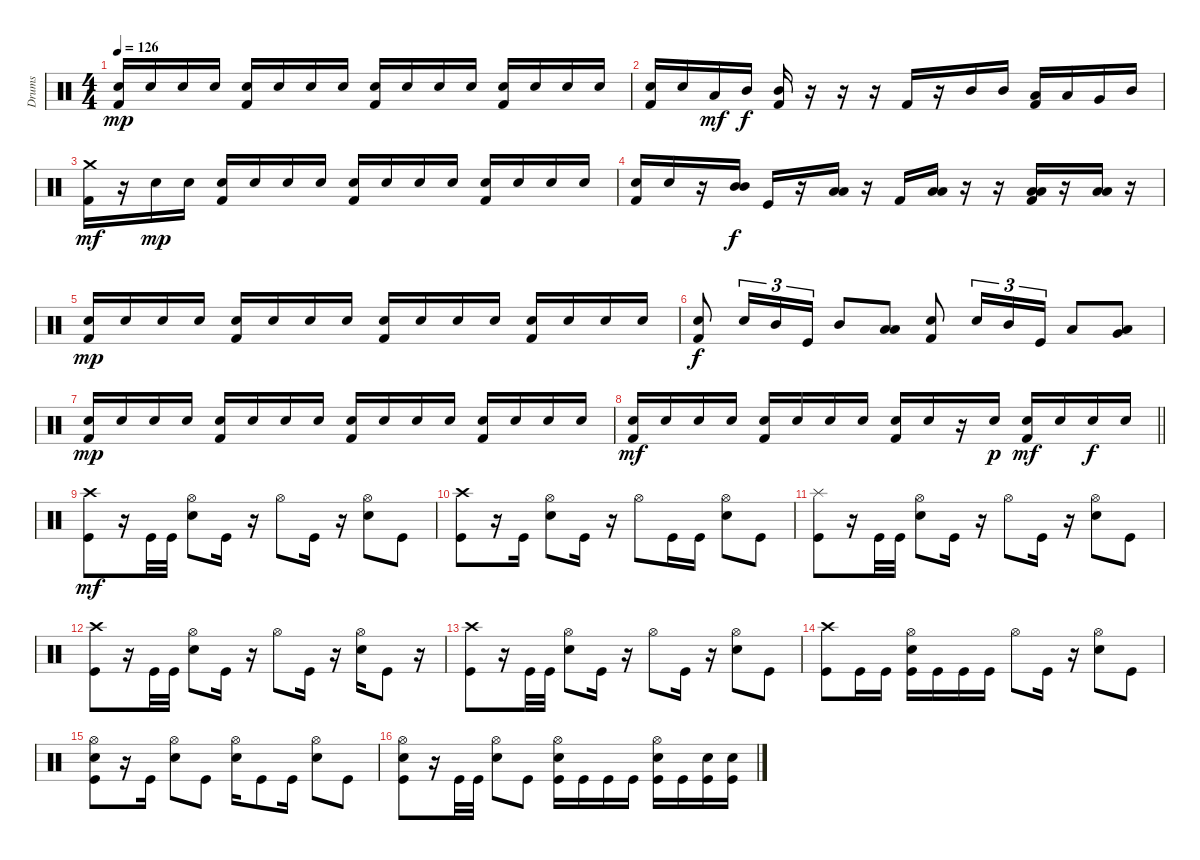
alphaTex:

\track ("Drums" "Drums") {instrument percussion bank 127}
\staff {score}
\articulation defaults
\ts (4 4)
\tempo 126
\clef neutral
\ks c
("Snare (hit) 2" "Kick (hit) 2").16{dy mp} "Snare (hit) 2".16 "Snare (hit) 2".16 "Snare (hit) 2".16 ("Snare (hit) 2" "Kick (hit) 2").16 "Snare (hit) 2".16 "Snare (hit) 2".16 "Snare (hit) 2".16 ("Snare (hit) 2" "Kick (hit) 2").16 "Snare (hit) 2".16 "Snare (hit) 2".16 "Snare (hit) 2".16 ("Snare (hit) 2" "Kick (hit) 2").16 "Snare (hit) 2".16 "Snare (hit) 2".16 "Snare (hit) 2".16 |
("Snare (hit) 2" "Kick (hit) 2").16 "Snare (hit) 2".16 "Low Tom (hit)".16{dy mf} "Mid Tom (hit)".16{dy f} ("Mid Tom (hit)" "Kick (hit) 2").16 r.16 r.16 r.16 "Kick (hit) 2".16 r.16 "Mid Tom (hit)".16 "Mid Tom (hit)".16 ("Low Tom (hit)" "Kick (hit) 2").16 "Low Tom (hit)".16 "Very Low Tom (hit)".16 "Mid Tom (hit)".16 |
("Crash medium (hit)" "Kick (hit) 2").16{dy mf} r.16 "Snare (hit) 2".16{dy mp} "Snare (hit) 2".16 ("Snare (hit) 2" "Kick (hit) 2").16 "Snare (hit) 2".16 "Snare (hit) 2".16 "Snare (hit) 2".16 ("Snare (hit) 2" "Kick (hit) 2").16 "Snare (hit) 2".16 "Snare (hit) 2".16 "Snare (hit) 2".16 ("Snare (hit) 2" "Kick (hit) 2").16 "Snare (hit) 2".16 "Snare (hit) 2".16 "Snare (hit) 2".16 |
("Snare (hit) 2" "Kick (hit) 2").16 "Snare (hit) 2".16 r.16 ("Mid Tom (hit)" "Mid Tom (hit)").16{dy f} "Kick (hit)".16 r.16 ("Low Tom (hit)" "Low Tom (hit)").16 r.16 "Kick (hit) 2".16 ("Low Floor Tom (hit)" "Low Floor Tom (hit)").16 r.16 r.16 ("Low Floor Tom (hit)" "Low Floor Tom (hit)" "Kick (hit) 2").16 r.16 ("Low Floor Tom (hit)" "Low Floor Tom (hit)").16 r.16 |
("Snare (hit) 2" "Kick (hit) 2").16{dy mp} "Snare (hit) 2".16 "Snare (hit) 2".16 "Snare (hit) 2".16 ("Snare (hit) 2" "Kick (hit) 2").16 "Snare (hit) 2".16 "Snare (hit) 2".16 "Snare (hit) 2".16 ("Snare (hit) 2" "Kick (hit) 2").16 "Snare (hit) 2".16 "Snare (hit) 2".16 "Snare (hit) 2".16 ("Snare (hit) 2" "Kick (hit) 2").16 "Snare (hit) 2".16 "Snare (hit) 2".16 "Snare (hit) 2".16 |
("Snare (hit) 2" "Kick (hit) 2").8{dy f} "Snare (hit) 2".16{tu (3 2)} "Mid Tom (hit)".16{tu (3 2)} "Kick (hit)".16{tu (3 2)} "Mid Tom (hit)".8 ("Low Floor Tom (hit)" "Low Floor Tom (hit)").8 ("Snare (hit) 2" "Kick (hit) 2").8 "Snare (hit) 2".16{tu (3 2)} "Mid Tom (hit)".16{tu (3 2)} "Kick (hit)".16{tu (3 2)} "Low Tom (hit)".8 ("Very Low Tom (hit)" "Low Floor Tom (hit)").8 |
("Snare (hit) 2" "Kick (hit) 2").16{dy mp} "Snare (hit) 2".16 "Snare (hit) 2".16 "Snare (hit) 2".16 ("Snare (hit) 2" "Kick (hit) 2").16 "Snare (hit) 2".16 "Snare (hit) 2".16 "Snare (hit) 2".16 ("Snare (hit) 2" "Kick (hit) 2").16 "Snare (hit) 2".16 "Snare (hit) 2".16 "Snare (hit) 2".16 ("Snare (hit) 2" "Kick (hit) 2").16 "Snare (hit) 2".16 "Snare (hit) 2".16 "Snare (hit) 2".16 |
\barLineRight lightlight
("Snare (hit) 2" "Kick (hit) 2").16{dy mf} "Snare (hit) 2".16 "Snare (hit) 2".16 "Snare (hit) 2".16 ("Snare (hit) 2" "Kick (hit) 2").16 "Snare (hit) 2".16 "Snare (hit) 2".16 "Snare (hit) 2".16 ("Snare (hit) 2" "Kick (hit) 2").16 "Snare (hit) 2".16 r.16 "Snare (hit) 2".16{dy p} ("Snare (hit) 2" "Kick (hit) 2").16{dy mf} "Snare (hit) 2".16 "Snare (hit) 2".16{dy f} "Snare (hit) 2".16 |
("Crash high (hit)" "Kick (hit)").8{dy mf} r.16 "Kick (hit)".32 "Kick (hit)".32 ("Hi-Hat (open)" "Snare (hit) 2").8 "Kick (hit)".16 r.16 "Hi-Hat (open)".8 "Kick (hit)".16 r.16 ("Hi-Hat (open)" "Snare (hit) 2").8 "Kick (hit)".8 |
("Crash high (hit)" "Kick (hit)").8 r.16 "Kick (hit)".16 ("Hi-Hat (open)" "Snare (hit) 2").8 "Kick (hit)".16 r.16 "Hi-Hat (open)".8 "Kick (hit)".16 "Kick (hit)".16 ("Hi-Hat (open)" "Snare (hit) 2").8 "Kick (hit)".8 |
("Splash (hit)" "Kick (hit)").8 r.16 "Kick (hit)".32 "Kick (hit)".32 ("Hi-Hat (open)" "Snare (hit) 2").8 "Kick (hit)".16 r.16 "Hi-Hat (open)".8 "Kick (hit)".16 r.16 ("Hi-Hat (open)" "Snare (hit) 2").8 "Kick (hit)".8 |
("Crash high (hit)" "Kick (hit)").8 r.16 "Kick (hit)".32 "Kick (hit)".32 ("Hi-Hat (open)" "Snare (hit) 2").8 "Kick (hit)".16 r.16 "Hi-Hat (open)".8 "Kick (hit)".16 r.16 ("Hi-Hat (open)" "Snare (hit) 2").16 "Kick (hit)".8 r.16 |
("Crash high (hit)" "Kick (hit)").8 r.16 "Kick (hit)".32 "Kick (hit)".32 ("Hi-Hat (open)" "Snare (hit) 2").8 "Kick (hit)".16 r.16 "Hi-Hat (open)".8 "Kick (hit)".16 r.16 ("Hi-Hat (open)" "Snare (hit) 2").8 "Kick (hit)".8 |
("Crash high (hit)" "Kick (hit)").8 "Kick (hit)".16 "Kick (hit)".16 ("Hi-Hat (open)" "Snare (hit) 2" "Kick (hit)").16 "Kick (hit)".16 "Kick (hit)".16 "Kick (hit)".16 "Hi-Hat (open)".8 "Kick (hit)".16 r.16 ("Hi-Hat (open)" "Snare (hit) 2").8 "Kick (hit)".8 |
("Hi-Hat (open)" "Snare (hit) 2" "Kick (hit)").8 r.16 "Kick (hit)".16 ("Hi-Hat (open)" "Snare (hit) 2").8 "Kick (hit)".8 ("Hi-Hat (open)" "Snare (hit) 2").16 "Kick (hit)".8 "Kick (hit)".16 ("Hi-Hat (open)" "Snare (hit) 2").8 "Kick (hit)".8 |
("Hi-Hat (open)" "Snare (hit) 2" "Kick (hit)").8 r.16 "Kick (hit)".32 "Kick (hit)".32 ("Hi-Hat (open)" "Snare (hit) 2").8 "Kick (hit)".8 ("Hi-Hat (open)" "Snare (hit) 2" "Kick (hit)").16 "Kick (hit)".16 "Kick (hit)".16 "Kick (hit)".16 ("Hi-Hat (open)" "Snare (hit) 2" "Kick (hit)").16 "Kick (hit)".16 ("Snare (hit) 2" "Kick (hit)").16 ("Snare (hit) 2" "Kick (hit)").16
